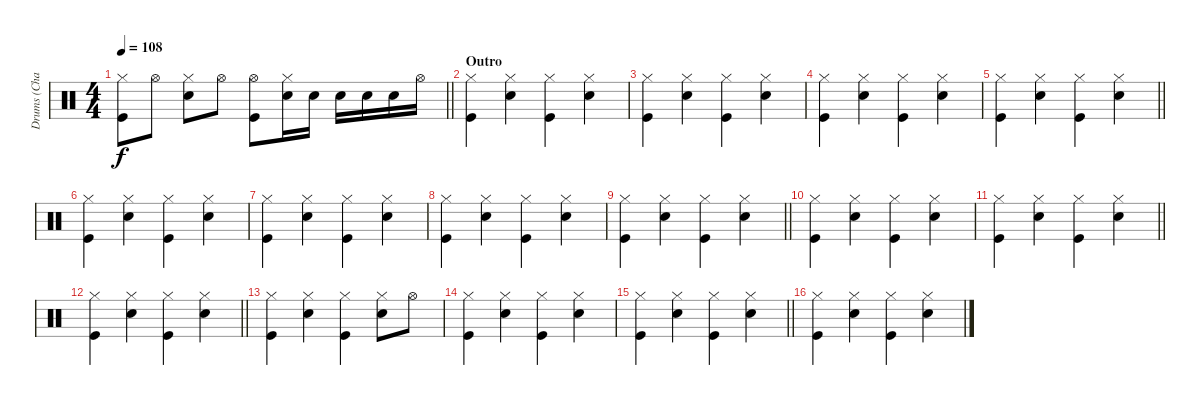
\track ("Drums (Chad Smith)" "Drums (Cha") {instrument percussion}
\staff {score}
\articulation defaults
\ts (4 4)
\tempo 108
\clef neutral
\barLineRight lightlight
\ks c
("Hi-Hat (closed)" "Kick (hit)").8{dy f} "Hi-Hat (open)".8 ("Hi-Hat (closed)" "Snare (hit) 2").8 "Hi-Hat (open)".8 ("Hi-Hat (open)" "Kick (hit)").8 ("Hi-Hat (closed)" "Snare (hit) 2").16 "Snare (hit) 2".16 "Snare (hit) 2".16 "Snare (hit) 2".16 "Snare (hit) 2".16 "Hi-Hat (open)".16 |
\section ("" "Outro")
("Hi-Hat (closed)" "Kick (hit)").4 ("Hi-Hat (closed)" "Snare (hit) 2").4 ("Hi-Hat (closed)" "Kick (hit)").4 ("Hi-Hat (closed)" "Snare (hit) 2").4 |
("Hi-Hat (closed)" "Kick (hit)").4 ("Hi-Hat (closed)" "Snare (hit) 2").4 ("Hi-Hat (closed)" "Kick (hit)").4 ("Hi-Hat (closed)" "Snare (hit) 2").4 |
("Hi-Hat (closed)" "Kick (hit)").4 ("Hi-Hat (closed)" "Snare (hit) 2").4 ("Hi-Hat (closed)" "Kick (hit)").4 ("Hi-Hat (closed)" "Snare (hit) 2").4 |
\barLineRight lightlight
("Hi-Hat (closed)" "Kick (hit)").4 ("Hi-Hat (closed)" "Snare (hit) 2").4 ("Hi-Hat (closed)" "Kick (hit)").4 ("Hi-Hat (closed)" "Snare (hit) 2").4 |
("Hi-Hat (closed)" "Kick (hit)").4 ("Hi-Hat (closed)" "Snare (hit) 2").4 ("Hi-Hat (closed)" "Kick (hit)").4 ("Hi-Hat (closed)" "Snare (hit) 2").4 |
("Hi-Hat (closed)" "Kick (hit)").4 ("Hi-Hat (closed)" "Snare (hit) 2").4 ("Hi-Hat (closed)" "Kick (hit)").4 ("Hi-Hat (closed)" "Snare (hit) 2").4 |
("Hi-Hat (closed)" "Kick (hit)").4 ("Hi-Hat (closed)" "Snare (hit) 2").4 ("Hi-Hat (closed)" "Kick (hit)").4 ("Hi-Hat (closed)" "Snare (hit) 2").4 |
\barLineRight lightlight
("Hi-Hat (closed)" "Kick (hit)").4 ("Hi-Hat (closed)" "Snare (hit) 2").4 ("Hi-Hat (closed)" "Kick (hit)").4 ("Hi-Hat (closed)" "Snare (hit) 2").4 |
("Hi-Hat (closed)" "Kick (hit)").4 ("Hi-Hat (closed)" "Snare (hit) 2").4 ("Hi-Hat (closed)" "Kick (hit)").4 ("Hi-Hat (closed)" "Snare (hit) 2").4 |
\barLineRight lightlight
("Hi-Hat (closed)" "Kick (hit)").4 ("Hi-Hat (closed)" "Snare (hit) 2").4 ("Hi-Hat (closed)" "Kick (hit)").4 ("Hi-Hat (closed)" "Snare (hit) 2").4 |
\barLineRight lightlight
("Hi-Hat (closed)" "Kick (hit)").4 ("Hi-Hat (closed)" "Snare (hit) 2").4 ("Hi-Hat (closed)" "Kick (hit)").4 ("Hi-Hat (closed)" "Snare (hit) 2").4 |
("Hi-Hat (closed)" "Kick (hit)").4 ("Hi-Hat (closed)" "Snare (hit) 2").4 ("Hi-Hat (closed)" "Kick (hit)").4 ("Hi-Hat (closed)" "Snare (hit) 2").8 "Hi-Hat (open)".8 |
("Hi-Hat (closed)" "Kick (hit)").4 ("Hi-Hat (closed)" "Snare (hit) 2").4 ("Hi-Hat (closed)" "Kick (hit)").4 ("Hi-Hat (closed)" "Snare (hit) 2").4 |
\barLineRight lightlight
("Hi-Hat (closed)" "Kick (hit)").4 ("Hi-Hat (closed)" "Snare (hit) 2").4 ("Hi-Hat (closed)" "Kick (hit)").4 ("Hi-Hat (closed)" "Snare (hit) 2").4 |
("Hi-Hat (closed)" "Kick (hit)").4 ("Hi-Hat (closed)" "Snare (hit) 2").4 ("Hi-Hat (closed)" "Kick (hit)").4 ("Hi-Hat (closed)" "Snare (hit) 2").4
